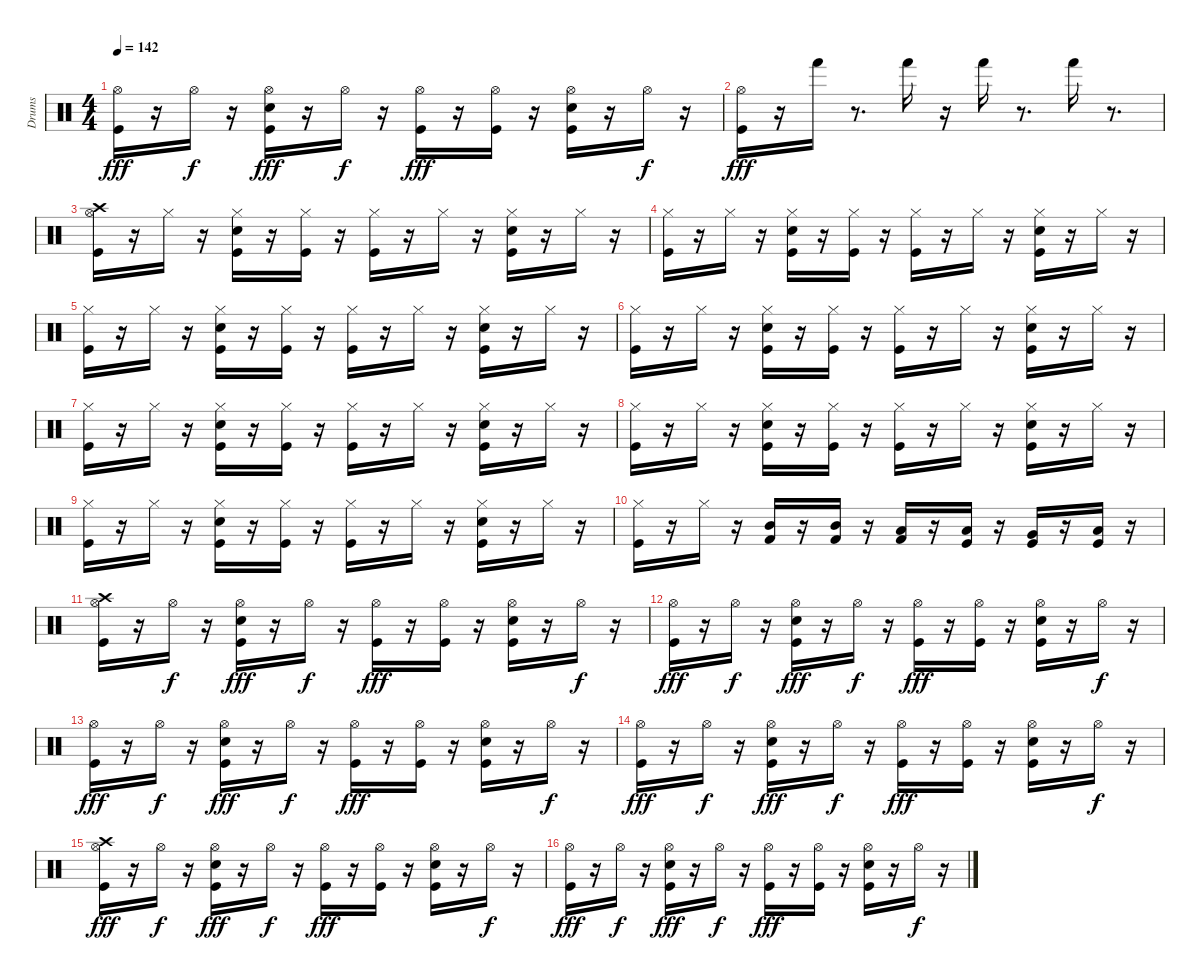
\track ("Drums" "Drums") {instrument percussion}
\staff {score}
\articulation defaults
\ts (4 4)
\tempo 142
\clef neutral
\ks c
("Kick (hit)" "Hi-Hat (open)").16{dy fff} r.16 "Hi-Hat (open)".16{dy f} r.16 ("Snare (hit) 2" "Kick (hit)" "Hi-Hat (open)").16{dy fff} r.16 "Hi-Hat (open)".16{dy f} r.16 ("Kick (hit)" "Hi-Hat (open)").16{dy fff} r.16 ("Kick (hit)" "Hi-Hat (open)").16 r.16 ("Kick (hit)" "Snare (hit) 2" "Hi-Hat (open)").16 r.16 "Hi-Hat (open)".16{dy f} r.16 |
("Kick (hit)" "Hi-Hat (open)").16{dy fff} r.16 "Hand (hit)".16 r.8{d} "Hand (hit)".16 r.16 "Hand (hit)".16 r.8{d} "Hand (hit)".16 r.8{d} |
("Crash high (hit)" "Hi-Hat (open)" "Kick (hit)").16 r.16 "Hi-Hat (closed)".16 r.16 ("Snare (hit) 2" "Kick (hit)" "Hi-Hat (closed)").16 r.16 ("Kick (hit)" "Hi-Hat (closed)").16 r.16 ("Kick (hit)" "Hi-Hat (closed)").16 r.16 "Hi-Hat (closed)".16 r.16 ("Snare (hit) 2" "Kick (hit)" "Hi-Hat (closed)").16 r.16 "Hi-Hat (closed)".16 r.16 |
("Kick (hit)" "Hi-Hat (closed)").16 r.16 "Hi-Hat (closed)".16 r.16 ("Snare (hit) 2" "Kick (hit)" "Hi-Hat (closed)").16 r.16 ("Kick (hit)" "Hi-Hat (closed)").16 r.16 ("Kick (hit)" "Hi-Hat (closed)").16 r.16 "Hi-Hat (closed)".16 r.16 ("Snare (hit) 2" "Kick (hit)" "Hi-Hat (closed)").16 r.16 "Hi-Hat (closed)".16 r.16 |
("Hi-Hat (closed)" "Kick (hit)").16 r.16 "Hi-Hat (closed)".16 r.16 ("Snare (hit) 2" "Kick (hit)" "Hi-Hat (closed)").16 r.16 ("Kick (hit)" "Hi-Hat (closed)").16 r.16 ("Kick (hit)" "Hi-Hat (closed)").16 r.16 "Hi-Hat (closed)".16 r.16 ("Snare (hit) 2" "Kick (hit)" "Hi-Hat (closed)").16 r.16 "Hi-Hat (closed)".16 r.16 |
("Hi-Hat (closed)" "Kick (hit)").16 r.16 "Hi-Hat (closed)".16 r.16 ("Snare (hit) 2" "Kick (hit)" "Hi-Hat (closed)").16 r.16 ("Kick (hit)" "Hi-Hat (closed)").16 r.16 ("Kick (hit)" "Hi-Hat (closed)").16 r.16 "Hi-Hat (closed)".16 r.16 ("Snare (hit) 2" "Kick (hit)" "Hi-Hat (closed)").16 r.16 "Hi-Hat (closed)".16 r.16 |
("Hi-Hat (closed)" "Kick (hit)").16 r.16 "Hi-Hat (closed)".16 r.16 ("Snare (hit) 2" "Kick (hit)" "Hi-Hat (closed)").16 r.16 ("Kick (hit)" "Hi-Hat (closed)").16 r.16 ("Kick (hit)" "Hi-Hat (closed)").16 r.16 "Hi-Hat (closed)".16 r.16 ("Snare (hit) 2" "Kick (hit)" "Hi-Hat (closed)").16 r.16 "Hi-Hat (closed)".16 r.16 |
("Hi-Hat (closed)" "Kick (hit)").16 r.16 "Hi-Hat (closed)".16 r.16 ("Snare (hit) 2" "Kick (hit)" "Hi-Hat (closed)").16 r.16 ("Kick (hit)" "Hi-Hat (closed)").16 r.16 ("Kick (hit)" "Hi-Hat (closed)").16 r.16 "Hi-Hat (closed)".16 r.16 ("Snare (hit) 2" "Kick (hit)" "Hi-Hat (closed)").16 r.16 "Hi-Hat (closed)".16 r.16 |
("Hi-Hat (closed)" "Kick (hit)").16 r.16 "Hi-Hat (closed)".16 r.16 ("Snare (hit) 2" "Kick (hit)" "Hi-Hat (closed)").16 r.16 ("Kick (hit)" "Hi-Hat (closed)").16 r.16 ("Kick (hit)" "Hi-Hat (closed)").16 r.16 "Hi-Hat (closed)".16 r.16 ("Snare (hit) 2" "Kick (hit)" "Hi-Hat (closed)").16 r.16 "Hi-Hat (closed)".16 r.16 |
("Hi-Hat (closed)" "Kick (hit)").16 r.16 "Hi-Hat (closed)".16 r.16 ("Kick (hit) 2" "Mid Tom (hit)").16 r.16 ("Kick (hit) 2" "Mid Tom (hit)").16 r.16 ("Kick (hit) 2" "Low Tom (hit)").16 r.16 ("Kick (hit)" "Low Tom (hit)").16 r.16 ("Kick (hit)" "Very Low Tom (hit)").16 r.16 ("Kick (hit)" "Low Floor Tom (hit)").16 r.16 |
("Crash high (hit)" "Hi-Hat (open)" "Kick (hit)").16 r.16 "Hi-Hat (open)".16{dy f} r.16 ("Snare (hit) 2" "Kick (hit)" "Hi-Hat (open)").16{dy fff} r.16 "Hi-Hat (open)".16{dy f} r.16 ("Kick (hit)" "Hi-Hat (open)").16{dy fff} r.16 ("Kick (hit)" "Hi-Hat (open)").16 r.16 ("Kick (hit)" "Snare (hit) 2" "Hi-Hat (open)").16 r.16 "Hi-Hat (open)".16{dy f} r.16 |
("Kick (hit)" "Hi-Hat (open)").16{dy fff} r.16 "Hi-Hat (open)".16{dy f} r.16 ("Snare (hit) 2" "Kick (hit)" "Hi-Hat (open)").16{dy fff} r.16 "Hi-Hat (open)".16{dy f} r.16 ("Kick (hit)" "Hi-Hat (open)").16{dy fff} r.16 ("Kick (hit)" "Hi-Hat (open)").16 r.16 ("Kick (hit)" "Snare (hit) 2" "Hi-Hat (open)").16 r.16 "Hi-Hat (open)".16{dy f} r.16 |
("Hi-Hat (open)" "Kick (hit)").16{dy fff} r.16 "Hi-Hat (open)".16{dy f} r.16 ("Snare (hit) 2" "Kick (hit)" "Hi-Hat (open)").16{dy fff} r.16 "Hi-Hat (open)".16{dy f} r.16 ("Kick (hit)" "Hi-Hat (open)").16{dy fff} r.16 ("Kick (hit)" "Hi-Hat (open)").16 r.16 ("Kick (hit)" "Snare (hit) 2" "Hi-Hat (open)").16 r.16 "Hi-Hat (open)".16{dy f} r.16 |
("Hi-Hat (open)" "Kick (hit)").16{dy fff} r.16 "Hi-Hat (open)".16{dy f} r.16 ("Snare (hit) 2" "Kick (hit)" "Hi-Hat (open)").16{dy fff} r.16 "Hi-Hat (open)".16{dy f} r.16 ("Kick (hit)" "Hi-Hat (open)").16{dy fff} r.16 ("Kick (hit)" "Hi-Hat (open)").16 r.16 ("Kick (hit)" "Snare (hit) 2" "Hi-Hat (open)").16 r.16 "Hi-Hat (open)".16{dy f} r.16 |
("Hi-Hat (open)" "Kick (hit)" "Crash high (hit)").16{dy fff} r.16 "Hi-Hat (open)".16{dy f} r.16 ("Snare (hit) 2" "Kick (hit)" "Hi-Hat (open)").16{dy fff} r.16 "Hi-Hat (open)".16{dy f} r.16 ("Kick (hit)" "Hi-Hat (open)").16{dy fff} r.16 ("Kick (hit)" "Hi-Hat (open)").16 r.16 ("Kick (hit)" "Snare (hit) 2" "Hi-Hat (open)").16 r.16 "Hi-Hat (open)".16{dy f} r.16 |
("Hi-Hat (open)" "Kick (hit)").16{dy fff} r.16 "Hi-Hat (open)".16{dy f} r.16 ("Snare (hit) 2" "Kick (hit)" "Hi-Hat (open)").16{dy fff} r.16 "Hi-Hat (open)".16{dy f} r.16 ("Kick (hit)" "Hi-Hat (open)").16{dy fff} r.16 ("Kick (hit)" "Hi-Hat (open)").16 r.16 ("Kick (hit)" "Snare (hit) 2" "Hi-Hat (open)").16 r.16 "Hi-Hat (open)".16{dy f} r.16
